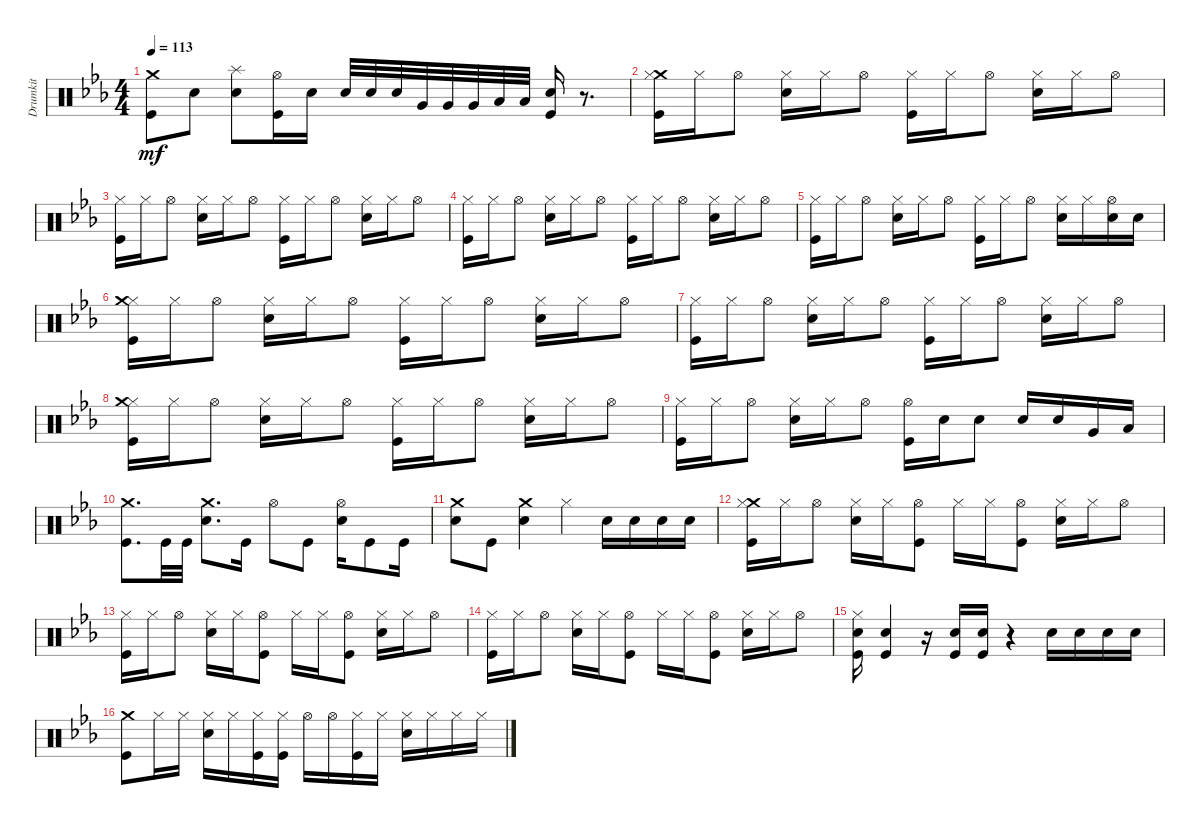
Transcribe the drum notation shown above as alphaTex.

\track ("Drumkit" "Drumkit") {instrument percussion}
\staff {score}
\articulation defaults
\ts (4 4)
\tempo 113
\clef neutral
\ks eb
("Crash medium (hit)" "Kick (hit)").8{dy mf} "Snare (hit) 2".8 ("Snare (hit) 2" "Splash (hit)").8 ("Hi-Hat (open)" "Kick (hit)").16 "Snare (hit) 2".16 "Snare (hit) 2".32 "Snare (hit) 2".32 "Snare (hit) 2".32 "Very Low Tom (hit)".32 "Very Low Tom (hit)".32 "Very Low Tom (hit)".32 "Low Floor Tom (hit)".32 "Low Floor Tom (hit)".32 ("Kick (hit)" "Snare (hit) 2").16 r.8{d} |
("Crash medium (hit)" "Hi-Hat (closed)" "Kick (hit)").16 "Hi-Hat (closed)".16 "Hi-Hat (open)".8 ("Hi-Hat (closed)" "Snare (hit) 2").16 "Hi-Hat (closed)".16 "Hi-Hat (open)".8 ("Hi-Hat (closed)" "Kick (hit)").16 "Hi-Hat (closed)".16 "Hi-Hat (open)".8 ("Hi-Hat (closed)" "Snare (hit) 2").16 "Hi-Hat (closed)".16 "Hi-Hat (open)".8 |
("Hi-Hat (closed)" "Kick (hit)").16 "Hi-Hat (closed)".16 "Hi-Hat (open)".8 ("Hi-Hat (closed)" "Snare (hit) 2").16 "Hi-Hat (closed)".16 "Hi-Hat (open)".8 ("Hi-Hat (closed)" "Kick (hit)").16 "Hi-Hat (closed)".16 "Hi-Hat (open)".8 ("Hi-Hat (closed)" "Snare (hit) 2").16 "Hi-Hat (closed)".16 "Hi-Hat (open)".8 |
("Hi-Hat (closed)" "Kick (hit)").16 "Hi-Hat (closed)".16 "Hi-Hat (open)".8 ("Hi-Hat (closed)" "Snare (hit) 2").16 "Hi-Hat (closed)".16 "Hi-Hat (open)".8 ("Hi-Hat (closed)" "Kick (hit)").16 "Hi-Hat (closed)".16 "Hi-Hat (open)".8 ("Hi-Hat (closed)" "Snare (hit) 2").16 "Hi-Hat (closed)".16 "Hi-Hat (open)".8 |
("Hi-Hat (closed)" "Kick (hit)").16 "Hi-Hat (closed)".16 "Hi-Hat (open)".8 ("Hi-Hat (closed)" "Snare (hit) 2").16 "Hi-Hat (closed)".16 "Hi-Hat (open)".8 ("Hi-Hat (closed)" "Kick (hit)").16 "Hi-Hat (closed)".16 "Hi-Hat (open)".8 ("Hi-Hat (closed)" "Snare (hit) 2").16 "Hi-Hat (closed)".16 ("Hi-Hat (open)" "Snare (hit) 2").16 "Snare (hit) 2".16 |
("Hi-Hat (closed)" "Kick (hit)" "Crash medium (hit)").16 "Hi-Hat (closed)".16 "Hi-Hat (open)".8 ("Hi-Hat (closed)" "Snare (hit) 2").16 "Hi-Hat (closed)".16 "Hi-Hat (open)".8 ("Hi-Hat (closed)" "Kick (hit)").16 "Hi-Hat (closed)".16 "Hi-Hat (open)".8 ("Hi-Hat (closed)" "Snare (hit) 2").16 "Hi-Hat (closed)".16 "Hi-Hat (open)".8 |
("Hi-Hat (closed)" "Kick (hit)").16 "Hi-Hat (closed)".16 "Hi-Hat (open)".8 ("Hi-Hat (closed)" "Snare (hit) 2").16 "Hi-Hat (closed)".16 "Hi-Hat (open)".8 ("Hi-Hat (closed)" "Kick (hit)").16 "Hi-Hat (closed)".16 "Hi-Hat (open)".8 ("Hi-Hat (closed)" "Snare (hit) 2").16 "Hi-Hat (closed)".16 "Hi-Hat (open)".8 |
("Hi-Hat (closed)" "Kick (hit)" "Crash medium (hit)").16 "Hi-Hat (closed)".16 "Hi-Hat (open)".8 ("Hi-Hat (closed)" "Snare (hit) 2").16 "Hi-Hat (closed)".16 "Hi-Hat (open)".8 ("Hi-Hat (closed)" "Kick (hit)").16 "Hi-Hat (closed)".16 "Hi-Hat (open)".8 ("Hi-Hat (closed)" "Snare (hit) 2").16 "Hi-Hat (closed)".16 "Hi-Hat (open)".8 |
("Hi-Hat (closed)" "Kick (hit)").16 "Hi-Hat (closed)".16 "Hi-Hat (open)".8 ("Hi-Hat (closed)" "Snare (hit) 2").16 "Hi-Hat (closed)".16 "Hi-Hat (open)".8 ("Hi-Hat (open)" "Kick (hit)").16 "Snare (hit) 2".16 "Snare (hit) 2".8 "Snare (hit) 2".16 "Snare (hit) 2".16 "Very Low Tom (hit)".16 "Low Floor Tom (hit)".16 |
("Kick (hit)" "Crash medium (hit)").8{d} "Kick (hit)".32 "Kick (hit)".32 ("Snare (hit) 2" "Crash medium (hit)").8{d} "Kick (hit)".16 "Hi-Hat (open)".8 "Kick (hit)".8 ("Hi-Hat (open)" "Snare (hit) 2").16 "Kick (hit)".8 "Kick (hit)".16 |
("Snare (hit) 2" "Crash medium (hit)").8 "Kick (hit)".8 ("Snare (hit) 2" "Crash medium (hit)").4 "Hi-Hat (closed)".4 "Snare (hit) 2".16 "Snare (hit) 2".16 "Snare (hit) 2".16 "Snare (hit) 2".16 |
("Crash medium (hit)" "Hi-Hat (closed)" "Kick (hit)").16 "Hi-Hat (closed)".16 "Hi-Hat (open)".8 ("Hi-Hat (closed)" "Snare (hit) 2").16 "Hi-Hat (closed)".16 ("Hi-Hat (open)" "Kick (hit)").8 "Hi-Hat (closed)".16 "Hi-Hat (closed)".16 ("Hi-Hat (open)" "Kick (hit)").8 ("Hi-Hat (closed)" "Snare (hit) 2").16 "Hi-Hat (closed)".16 "Hi-Hat (open)".8 |
("Hi-Hat (closed)" "Kick (hit)").16 "Hi-Hat (closed)".16 "Hi-Hat (open)".8 ("Hi-Hat (closed)" "Snare (hit) 2").16 "Hi-Hat (closed)".16 ("Hi-Hat (open)" "Kick (hit)").8 "Hi-Hat (closed)".16 "Hi-Hat (closed)".16 ("Hi-Hat (open)" "Kick (hit)").8 ("Hi-Hat (closed)" "Snare (hit) 2").16 "Hi-Hat (closed)".16 "Hi-Hat (open)".8 |
("Hi-Hat (closed)" "Kick (hit)").16 "Hi-Hat (closed)".16 "Hi-Hat (open)".8 ("Hi-Hat (closed)" "Snare (hit) 2").16 "Hi-Hat (closed)".16 ("Hi-Hat (open)" "Kick (hit)").8 "Hi-Hat (closed)".16 "Hi-Hat (closed)".16 ("Hi-Hat (open)" "Kick (hit)").8 ("Hi-Hat (closed)" "Snare (hit) 2").16 "Hi-Hat (closed)".16 "Hi-Hat (open)".8 |
("Hi-Hat (closed)" "Kick (hit)" "Snare (hit) 2").16 ("Snare (hit) 2" "Kick (hit)").4 r.16 ("Snare (hit) 2" "Kick (hit)").16 ("Snare (hit) 2" "Kick (hit)").16 r.4 "Snare (hit) 2".16 "Snare (hit) 2".16 "Snare (hit) 2".16 "Snare (hit) 2".16 |
("Crash medium (hit)" "Kick (hit)").8 "Hi-Hat (closed)".16 "Hi-Hat (closed)".16 ("Hi-Hat (closed)" "Snare (hit) 2").16 "Hi-Hat (closed)".16 ("Hi-Hat (closed)" "Kick (hit)").16 ("Hi-Hat (closed)" "Kick (hit)").16 "Hi-Hat (open)".16 "Hi-Hat (open)".16 ("Hi-Hat (closed)" "Kick (hit)").16 "Hi-Hat (closed)".16 ("Hi-Hat (closed)" "Snare (hit) 2").16 "Hi-Hat (closed)".16 "Hi-Hat (closed)".16 "Hi-Hat (closed)".16
